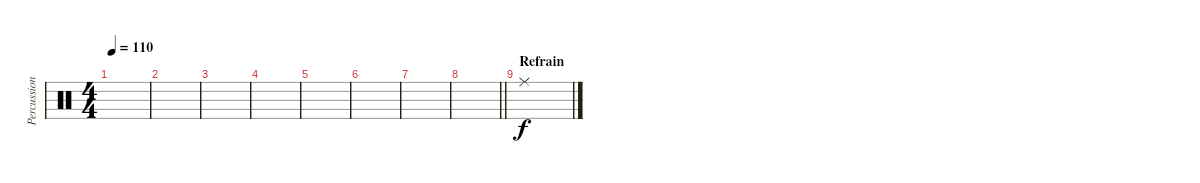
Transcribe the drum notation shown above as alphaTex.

\track ("Percussions" "Percussion") {instrument percussion}
\staff {score}
\articulation defaults
\ts (4 4)
\tempo 110
\clef neutral
\ks c
|
|
|
|
|
|
|
\barLineRight lightlight
|
\section ("" "Refrain")
"Ride (middle)".1
